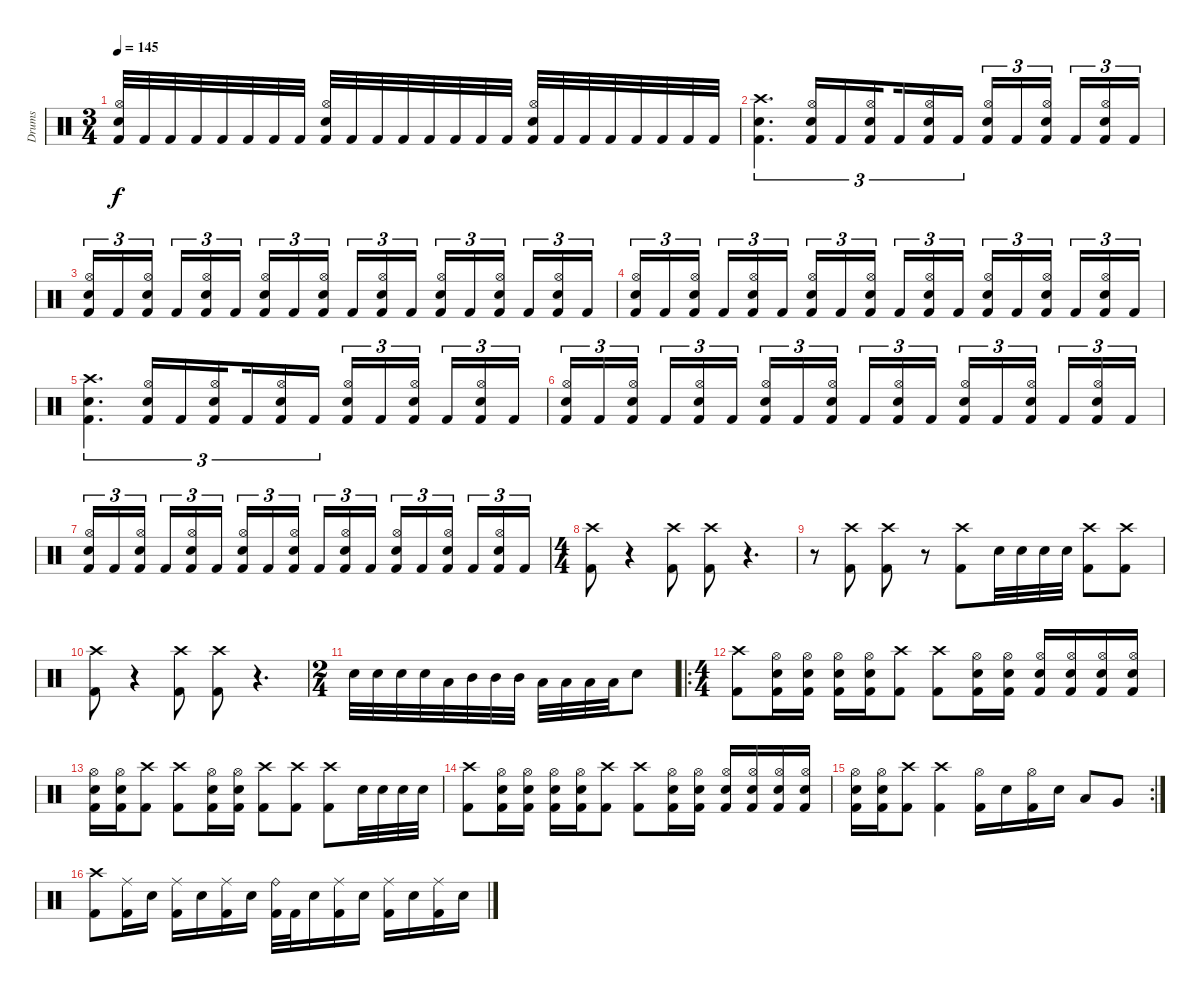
\track ("Drums" "Drums") {instrument percussion}
\staff {score}
\articulation defaults
\ts (3 4)
\tempo 145
\clef neutral
\ks c
("Kick (hit) 2" "Hi-Hat (open)" "Snare (hit) 2").32{dy f} "Kick (hit) 2".32 "Kick (hit) 2".32 "Kick (hit) 2".32 "Kick (hit) 2".32 "Kick (hit) 2".32 "Kick (hit) 2".32 "Kick (hit) 2".32 ("Kick (hit) 2" "Snare (hit) 2" "Hi-Hat (open)").32 "Kick (hit) 2".32 "Kick (hit) 2".32 "Kick (hit) 2".32 "Kick (hit) 2".32 "Kick (hit) 2".32 "Kick (hit) 2".32 "Kick (hit) 2".32 ("Kick (hit) 2" "Snare (hit) 2" "Hi-Hat (open)").32 "Kick (hit) 2".32 "Kick (hit) 2".32 "Kick (hit) 2".32 "Kick (hit) 2".32 "Kick (hit) 2".32 "Kick (hit) 2".32 "Kick (hit) 2".32 |
("Kick (hit) 2" "Crash high (hit)" "Snare (hit) 2").4{d tu (3 2)} ("Kick (hit) 2" "Snare (hit) 2" "Hi-Hat (open)").16{tu (3 2)} "Kick (hit) 2".16{tu (3 2)} ("Kick (hit) 2" "Snare (hit) 2" "Hi-Hat (open)").16{tu (3 2) beam splitsecondary} "Kick (hit) 2".16{tu (3 2)} ("Kick (hit) 2" "Snare (hit) 2" "Hi-Hat (open)").16{tu (3 2)} "Kick (hit) 2".16{tu (3 2)} ("Kick (hit) 2" "Snare (hit) 2" "Hi-Hat (open)").16{tu (3 2)} "Kick (hit) 2".16{tu (3 2)} ("Kick (hit) 2" "Snare (hit) 2" "Hi-Hat (open)").16{tu (3 2) beam splitsecondary} "Kick (hit) 2".16{tu (3 2)} ("Kick (hit) 2" "Snare (hit) 2" "Hi-Hat (open)").16{tu (3 2)} "Kick (hit) 2".16{tu (3 2)} |
("Kick (hit) 2" "Snare (hit) 2" "Hi-Hat (open)").16{tu (3 2)} "Kick (hit) 2".16{tu (3 2)} ("Kick (hit) 2" "Snare (hit) 2" "Hi-Hat (open)").16{tu (3 2) beam splitsecondary} "Kick (hit) 2".16{tu (3 2)} ("Kick (hit) 2" "Snare (hit) 2" "Hi-Hat (open)").16{tu (3 2)} "Kick (hit) 2".16{tu (3 2)} ("Kick (hit) 2" "Snare (hit) 2" "Hi-Hat (open)").16{tu (3 2)} "Kick (hit) 2".16{tu (3 2)} ("Kick (hit) 2" "Snare (hit) 2" "Hi-Hat (open)").16{tu (3 2) beam splitsecondary} "Kick (hit) 2".16{tu (3 2)} ("Kick (hit) 2" "Snare (hit) 2" "Hi-Hat (open)").16{tu (3 2)} "Kick (hit) 2".16{tu (3 2)} ("Kick (hit) 2" "Snare (hit) 2" "Hi-Hat (open)").16{tu (3 2)} "Kick (hit) 2".16{tu (3 2)} ("Kick (hit) 2" "Snare (hit) 2" "Hi-Hat (open)").16{tu (3 2) beam splitsecondary} "Kick (hit) 2".16{tu (3 2)} ("Kick (hit) 2" "Snare (hit) 2" "Hi-Hat (open)").16{tu (3 2)} "Kick (hit) 2".16{tu (3 2)} |
("Kick (hit) 2" "Snare (hit) 2" "Hi-Hat (open)").16{tu (3 2)} "Kick (hit) 2".16{tu (3 2)} ("Kick (hit) 2" "Snare (hit) 2" "Hi-Hat (open)").16{tu (3 2) beam splitsecondary} "Kick (hit) 2".16{tu (3 2)} ("Kick (hit) 2" "Snare (hit) 2" "Hi-Hat (open)").16{tu (3 2)} "Kick (hit) 2".16{tu (3 2)} ("Kick (hit) 2" "Snare (hit) 2" "Hi-Hat (open)").16{tu (3 2)} "Kick (hit) 2".16{tu (3 2)} ("Kick (hit) 2" "Snare (hit) 2" "Hi-Hat (open)").16{tu (3 2) beam splitsecondary} "Kick (hit) 2".16{tu (3 2)} ("Kick (hit) 2" "Snare (hit) 2" "Hi-Hat (open)").16{tu (3 2)} "Kick (hit) 2".16{tu (3 2)} ("Kick (hit) 2" "Snare (hit) 2" "Hi-Hat (open)").16{tu (3 2)} "Kick (hit) 2".16{tu (3 2)} ("Kick (hit) 2" "Snare (hit) 2" "Hi-Hat (open)").16{tu (3 2) beam splitsecondary} "Kick (hit) 2".16{tu (3 2)} ("Kick (hit) 2" "Snare (hit) 2" "Hi-Hat (open)").16{tu (3 2)} "Kick (hit) 2".16{tu (3 2)} |
("Kick (hit) 2" "Crash high (hit)" "Snare (hit) 2").4{d tu (3 2)} ("Kick (hit) 2" "Snare (hit) 2" "Hi-Hat (open)").16{tu (3 2)} "Kick (hit) 2".16{tu (3 2)} ("Kick (hit) 2" "Snare (hit) 2" "Hi-Hat (open)").16{tu (3 2) beam splitsecondary} "Kick (hit) 2".16{tu (3 2)} ("Kick (hit) 2" "Snare (hit) 2" "Hi-Hat (open)").16{tu (3 2)} "Kick (hit) 2".16{tu (3 2)} ("Kick (hit) 2" "Snare (hit) 2" "Hi-Hat (open)").16{tu (3 2)} "Kick (hit) 2".16{tu (3 2)} ("Kick (hit) 2" "Snare (hit) 2" "Hi-Hat (open)").16{tu (3 2) beam splitsecondary} "Kick (hit) 2".16{tu (3 2)} ("Kick (hit) 2" "Snare (hit) 2" "Hi-Hat (open)").16{tu (3 2)} "Kick (hit) 2".16{tu (3 2)} |
("Kick (hit) 2" "Snare (hit) 2" "Hi-Hat (open)").16{tu (3 2)} "Kick (hit) 2".16{tu (3 2)} ("Kick (hit) 2" "Snare (hit) 2" "Hi-Hat (open)").16{tu (3 2) beam splitsecondary} "Kick (hit) 2".16{tu (3 2)} ("Kick (hit) 2" "Snare (hit) 2" "Hi-Hat (open)").16{tu (3 2)} "Kick (hit) 2".16{tu (3 2)} ("Kick (hit) 2" "Snare (hit) 2" "Hi-Hat (open)").16{tu (3 2)} "Kick (hit) 2".16{tu (3 2)} ("Kick (hit) 2" "Snare (hit) 2" "Hi-Hat (open)").16{tu (3 2) beam splitsecondary} "Kick (hit) 2".16{tu (3 2)} ("Kick (hit) 2" "Snare (hit) 2" "Hi-Hat (open)").16{tu (3 2)} "Kick (hit) 2".16{tu (3 2)} ("Kick (hit) 2" "Snare (hit) 2" "Hi-Hat (open)").16{tu (3 2)} "Kick (hit) 2".16{tu (3 2)} ("Kick (hit) 2" "Snare (hit) 2" "Hi-Hat (open)").16{tu (3 2) beam splitsecondary} "Kick (hit) 2".16{tu (3 2)} ("Kick (hit) 2" "Snare (hit) 2" "Hi-Hat (open)").16{tu (3 2)} "Kick (hit) 2".16{tu (3 2)} |
("Kick (hit) 2" "Snare (hit) 2" "Hi-Hat (open)").16{tu (3 2)} "Kick (hit) 2".16{tu (3 2)} ("Kick (hit) 2" "Snare (hit) 2" "Hi-Hat (open)").16{tu (3 2) beam splitsecondary} "Kick (hit) 2".16{tu (3 2)} ("Kick (hit) 2" "Snare (hit) 2" "Hi-Hat (open)").16{tu (3 2)} "Kick (hit) 2".16{tu (3 2)} ("Kick (hit) 2" "Snare (hit) 2" "Hi-Hat (open)").16{tu (3 2)} "Kick (hit) 2".16{tu (3 2)} ("Kick (hit) 2" "Snare (hit) 2" "Hi-Hat (open)").16{tu (3 2) beam splitsecondary} "Kick (hit) 2".16{tu (3 2)} ("Kick (hit) 2" "Snare (hit) 2" "Hi-Hat (open)").16{tu (3 2)} "Kick (hit) 2".16{tu (3 2)} ("Kick (hit) 2" "Snare (hit) 2" "Hi-Hat (open)").16{tu (3 2)} "Kick (hit) 2".16{tu (3 2)} ("Kick (hit) 2" "Snare (hit) 2" "Hi-Hat (open)").16{tu (3 2) beam splitsecondary} "Kick (hit) 2".16{tu (3 2)} ("Kick (hit) 2" "Snare (hit) 2" "Hi-Hat (open)").16{tu (3 2)} "Kick (hit) 2".16{tu (3 2)} |
\ts (4 4)
("Kick (hit) 2" "Crash high (hit)").8 r.4{volume 0} ("Kick (hit) 2" "Crash high (hit)").8{volume 11} ("Kick (hit) 2" "Crash high (hit)").8 r.4{d volume 0} |
r.8 ("Kick (hit) 2" "Crash high (hit)").8{volume 11} ("Kick (hit) 2" "Crash high (hit)").8 r.8{volume 0} ("Kick (hit) 2" "Crash high (hit)").8{volume 11} "Snare (hit) 2".32 "Snare (hit) 2".32 "Snare (hit) 2".32 "Snare (hit) 2".32 ("Kick (hit) 2" "Crash high (hit)").8 ("Kick (hit) 2" "Crash high (hit)").8 |
("Kick (hit) 2" "Crash high (hit)").8 r.4{volume 0} ("Kick (hit) 2" "Crash high (hit)").8{volume 11} ("Kick (hit) 2" "Crash high (hit)").8 r.4{d volume 0} |
\ts (2 4)
"Snare (hit) 2".32{volume 11} "Snare (hit) 2".32 "Snare (hit) 2".32 "Snare (hit) 2".32 "Low Tom (hit)".32 "Mid Tom (hit)".32 "Mid Tom (hit)".32 "Mid Tom (hit)".32 "Low Tom (hit)".32 "Low Tom (hit)".32 "Low Tom (hit)".32 "Low Tom (hit)".32 "Snare (hit) 2".8 |
\ro
\ts (4 4)
("Kick (hit) 2" "Crash high (hit)").8 ("Snare (hit) 2" "Kick (hit) 2" "Hi-Hat (open)").16 ("Snare (hit) 2" "Kick (hit) 2" "Hi-Hat (open)").16 ("Snare (hit) 2" "Kick (hit) 2" "Hi-Hat (open)").16 ("Snare (hit) 2" "Kick (hit) 2" "Hi-Hat (open)").16 ("Kick (hit) 2" "Crash high (hit)").8 ("Kick (hit) 2" "Crash high (hit)").8 ("Snare (hit) 2" "Kick (hit) 2" "Hi-Hat (open)").16 ("Snare (hit) 2" "Kick (hit) 2" "Hi-Hat (open)").16 ("Snare (hit) 2" "Kick (hit) 2" "Hi-Hat (open)").16 ("Snare (hit) 2" "Kick (hit) 2" "Hi-Hat (open)").16 ("Snare (hit) 2" "Kick (hit) 2" "Hi-Hat (open)").16 ("Snare (hit) 2" "Kick (hit) 2" "Hi-Hat (open)").16 |
("Snare (hit) 2" "Kick (hit) 2" "Hi-Hat (open)").16 ("Snare (hit) 2" "Kick (hit) 2" "Hi-Hat (open)").16 ("Kick (hit) 2" "Crash high (hit)").8 ("Kick (hit) 2" "Crash high (hit)").8 ("Snare (hit) 2" "Kick (hit) 2" "Hi-Hat (open)").16 ("Snare (hit) 2" "Kick (hit) 2" "Hi-Hat (open)").16 ("Kick (hit) 2" "Crash high (hit)").8 ("Kick (hit) 2" "Crash high (hit)").8 ("Kick (hit) 2" "Crash high (hit)").8 "Snare (hit) 2".32{volume 11} "Snare (hit) 2".32 "Snare (hit) 2".32 "Snare (hit) 2".32 |
("Kick (hit) 2" "Crash high (hit)").8 ("Snare (hit) 2" "Kick (hit) 2" "Hi-Hat (open)").16 ("Snare (hit) 2" "Kick (hit) 2" "Hi-Hat (open)").16 ("Snare (hit) 2" "Kick (hit) 2" "Hi-Hat (open)").16 ("Snare (hit) 2" "Kick (hit) 2" "Hi-Hat (open)").16 ("Kick (hit) 2" "Crash high (hit)").8 ("Kick (hit) 2" "Crash high (hit)").8 ("Snare (hit) 2" "Kick (hit) 2" "Hi-Hat (open)").16 ("Snare (hit) 2" "Kick (hit) 2" "Hi-Hat (open)").16 ("Snare (hit) 2" "Kick (hit) 2" "Hi-Hat (open)").16 ("Snare (hit) 2" "Kick (hit) 2" "Hi-Hat (open)").16 ("Snare (hit) 2" "Kick (hit) 2" "Hi-Hat (open)").16 ("Snare (hit) 2" "Kick (hit) 2" "Hi-Hat (open)").16 |
\rc 2
("Snare (hit) 2" "Kick (hit) 2" "Hi-Hat (open)").16 ("Snare (hit) 2" "Kick (hit) 2" "Hi-Hat (open)").16 ("Kick (hit) 2" "Crash high (hit)").8 ("Kick (hit) 2" "Crash high (hit)").4 ("Hi-Hat (open)" "Kick (hit) 2").16 "Snare (hit) 2".16 ("Hi-Hat (open)" "Kick (hit) 2").16 "Snare (hit) 2".16 "Low Tom (hit)".8 "Very Low Tom (hit)".8 |
("Kick (hit) 2" "Crash high (hit)").8 ("Kick (hit) 2" "Ride (middle)").16 "Snare (hit) 2".16 ("Kick (hit) 2" "Ride (middle)").16 "Snare (hit) 2".16 ("Kick (hit) 2" "Ride (middle)").16 "Snare (hit) 2".16 ("Kick (hit) 2" "Ride (bell)").32 "Kick (hit) 2".32 "Snare (hit) 2".16 ("Kick (hit) 2" "Ride (middle)").16 "Snare (hit) 2".16 ("Kick (hit) 2" "Ride (middle)").16 "Snare (hit) 2".16 ("Kick (hit) 2" "Ride (middle)").16 "Snare (hit) 2".16
